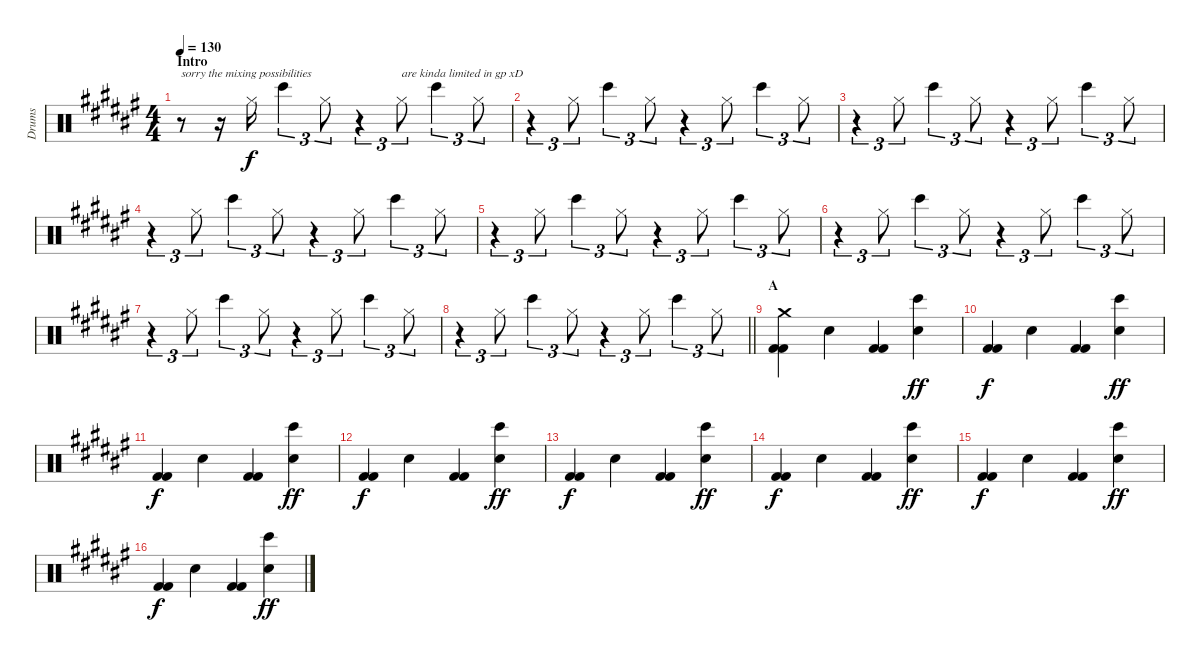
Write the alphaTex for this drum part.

\track ("Drums" "Drums") {instrument percussion}
\staff {score}
\articulation defaults
\ts (4 4)
\section ("" "Intro")
\tempo 130
\clef neutral
\ks d#minor
r.8{txt "sorry the mixing possibilities" dy f} r.16 "Hi-Hat (closed)".16 "Bongo High (hit)".4{tu (3 2)} "Hi-Hat (closed)".8{tu (3 2)} r.4{tu (3 2)} "Hi-Hat (closed)".8{tu (3 2) txt "are kinda limited in gp xD"} "Bongo High (hit)".4{tu (3 2)} "Hi-Hat (closed)".8{tu (3 2)} |
r.4{tu (3 2)} "Hi-Hat (closed)".8{tu (3 2)} "Bongo High (hit)".4{tu (3 2)} "Hi-Hat (closed)".8{tu (3 2)} r.4{tu (3 2)} "Hi-Hat (closed)".8{tu (3 2)} "Bongo High (hit)".4{tu (3 2)} "Hi-Hat (closed)".8{tu (3 2)} |
r.4{tu (3 2)} "Hi-Hat (closed)".8{tu (3 2)} "Bongo High (hit)".4{tu (3 2)} "Hi-Hat (closed)".8{tu (3 2)} r.4{tu (3 2)} "Hi-Hat (closed)".8{tu (3 2)} "Bongo High (hit)".4{tu (3 2)} "Hi-Hat (closed)".8{tu (3 2)} |
r.4{tu (3 2)} "Hi-Hat (closed)".8{tu (3 2)} "Bongo High (hit)".4{tu (3 2)} "Hi-Hat (closed)".8{tu (3 2)} r.4{tu (3 2)} "Hi-Hat (closed)".8{tu (3 2)} "Bongo High (hit)".4{tu (3 2)} "Hi-Hat (closed)".8{tu (3 2)} |
r.4{tu (3 2)} "Hi-Hat (closed)".8{tu (3 2)} "Bongo High (hit)".4{tu (3 2)} "Hi-Hat (closed)".8{tu (3 2)} r.4{tu (3 2)} "Hi-Hat (closed)".8{tu (3 2)} "Bongo High (hit)".4{tu (3 2)} "Hi-Hat (closed)".8{tu (3 2)} |
r.4{tu (3 2)} "Hi-Hat (closed)".8{tu (3 2)} "Bongo High (hit)".4{tu (3 2)} "Hi-Hat (closed)".8{tu (3 2)} r.4{tu (3 2)} "Hi-Hat (closed)".8{tu (3 2)} "Bongo High (hit)".4{tu (3 2)} "Hi-Hat (closed)".8{tu (3 2)} |
r.4{tu (3 2)} "Hi-Hat (closed)".8{tu (3 2)} "Bongo High (hit)".4{tu (3 2)} "Hi-Hat (closed)".8{tu (3 2)} r.4{tu (3 2)} "Hi-Hat (closed)".8{tu (3 2)} "Bongo High (hit)".4{tu (3 2)} "Hi-Hat (closed)".8{tu (3 2)} |
\barLineRight lightlight
r.4{tu (3 2)} "Hi-Hat (closed)".8{tu (3 2)} "Bongo High (hit)".4{tu (3 2)} "Hi-Hat (closed)".8{tu (3 2)} r.4{tu (3 2)} "Hi-Hat (closed)".8{tu (3 2)} "Bongo High (hit)".4{tu (3 2)} "Hi-Hat (closed)".8{tu (3 2)} |
\section ("" "A")
("Crash medium (hit)" "Kick (hit) 2" "Kick (hit) 2").4 "Snare (hit) 2".4 ("Kick (hit) 2" "Kick (hit) 2").4 ("Bongo High (hit)" "Snare (hit) 2").4{dy ff} |
("Kick (hit) 2" "Kick (hit) 2").4{dy f} "Snare (hit) 2".4 ("Kick (hit) 2" "Kick (hit) 2").4 ("Bongo High (hit)" "Snare (hit) 2").4{dy ff} |
("Kick (hit) 2" "Kick (hit) 2").4{dy f} "Snare (hit) 2".4 ("Kick (hit) 2" "Kick (hit) 2").4 ("Bongo High (hit)" "Snare (hit) 2").4{dy ff} |
("Kick (hit) 2" "Kick (hit) 2").4{dy f} "Snare (hit) 2".4 ("Kick (hit) 2" "Kick (hit) 2").4 ("Bongo High (hit)" "Snare (hit) 2").4{dy ff} |
("Kick (hit) 2" "Kick (hit) 2").4{dy f} "Snare (hit) 2".4 ("Kick (hit) 2" "Kick (hit) 2").4 ("Bongo High (hit)" "Snare (hit) 2").4{dy ff} |
("Kick (hit) 2" "Kick (hit) 2").4{dy f} "Snare (hit) 2".4 ("Kick (hit) 2" "Kick (hit) 2").4 ("Bongo High (hit)" "Snare (hit) 2").4{dy ff} |
("Kick (hit) 2" "Kick (hit) 2").4{dy f} "Snare (hit) 2".4 ("Kick (hit) 2" "Kick (hit) 2").4 ("Bongo High (hit)" "Snare (hit) 2").4{dy ff} |
("Kick (hit) 2" "Kick (hit) 2").4{dy f} "Snare (hit) 2".4 ("Kick (hit) 2" "Kick (hit) 2").4 ("Bongo High (hit)" "Snare (hit) 2").4{dy ff}
